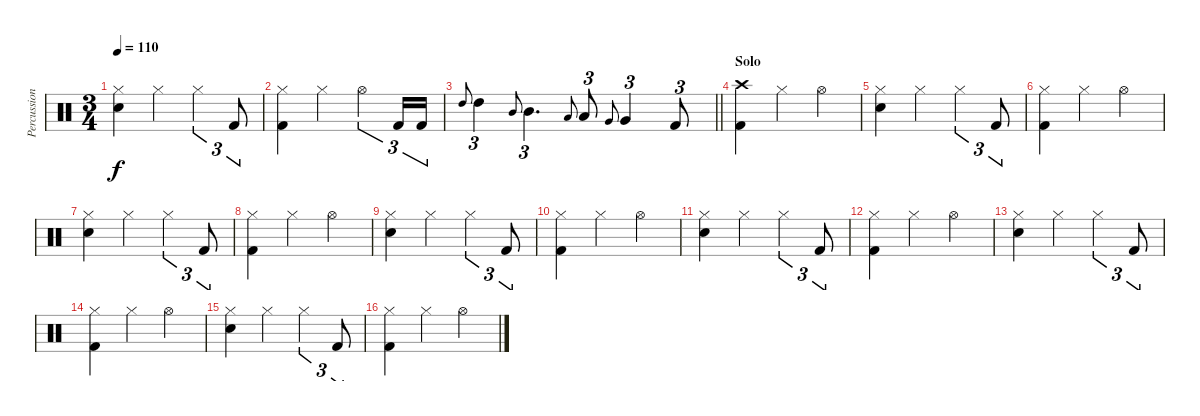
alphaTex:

\track ("Percussion" "Percussion") {instrument percussion}
\staff {score}
\articulation defaults
\ts (3 4)
\tempo 110
\clef neutral
\ks c
("Hi-Hat (closed)" "Snare (hit) 2").4{dy f} "Hi-Hat (closed)".4 "Hi-Hat (closed)".4{tu (3 2)} "Kick (hit) 2".8{tu (3 2)} |
("Hi-Hat (closed)" "Kick (hit) 2").4 "Hi-Hat (closed)".4 "Hi-Hat (open)".4{tu (3 2)} "Kick (hit) 2".16{tu (3 2)} "Kick (hit) 2".16{tu (3 2)} |
\barLineRight lightlight "High Tom (hit)".8{gr onbeat} "High Tom (hit)".4{tu (3 2)} "Mid Tom (hit)".8{gr onbeat} "Mid Tom (hit)".4{d tu (3 2)} "Low Tom (hit)".8{gr onbeat} "Low Tom (hit)".8{tu (3 2)} "Very Low Tom (hit)".8{gr onbeat} "Very Low Tom (hit)".4{tu (3 2)} "Kick (hit) 2".8{tu (3 2)}
|
\section ("" "Solo")
("Crash high (hit)" "Kick (hit) 2").4 "Hi-Hat (closed)".4 "Hi-Hat (open)".4 |
("Hi-Hat (closed)" "Snare (hit) 2").4 "Hi-Hat (closed)".4 "Hi-Hat (closed)".4{tu (3 2)} "Kick (hit) 2".8{tu (3 2)} |
("Hi-Hat (closed)" "Kick (hit) 2").4 "Hi-Hat (closed)".4 "Hi-Hat (open)".4 |
("Hi-Hat (closed)" "Snare (hit) 2").4 "Hi-Hat (closed)".4 "Hi-Hat (closed)".4{tu (3 2)} "Kick (hit) 2".8{tu (3 2)} |
("Hi-Hat (closed)" "Kick (hit) 2").4 "Hi-Hat (closed)".4 "Hi-Hat (open)".4 |
("Hi-Hat (closed)" "Snare (hit) 2").4 "Hi-Hat (closed)".4 "Hi-Hat (closed)".4{tu (3 2)} "Kick (hit) 2".8{tu (3 2)} |
("Hi-Hat (closed)" "Kick (hit) 2").4 "Hi-Hat (closed)".4 "Hi-Hat (open)".4 |
("Hi-Hat (closed)" "Snare (hit) 2").4 "Hi-Hat (closed)".4 "Hi-Hat (closed)".4{tu (3 2)} "Kick (hit) 2".8{tu (3 2)} |
("Hi-Hat (closed)" "Kick (hit) 2").4 "Hi-Hat (closed)".4 "Hi-Hat (open)".4 |
("Hi-Hat (closed)" "Snare (hit) 2").4 "Hi-Hat (closed)".4 "Hi-Hat (closed)".4{tu (3 2)} "Kick (hit) 2".8{tu (3 2)} |
("Hi-Hat (closed)" "Kick (hit) 2").4 "Hi-Hat (closed)".4 "Hi-Hat (open)".4 |
("Hi-Hat (closed)" "Snare (hit) 2").4 "Hi-Hat (closed)".4 "Hi-Hat (closed)".4{tu (3 2)} "Kick (hit) 2".8{tu (3 2)} |
("Hi-Hat (closed)" "Kick (hit) 2").4 "Hi-Hat (closed)".4 "Hi-Hat (open)".4
